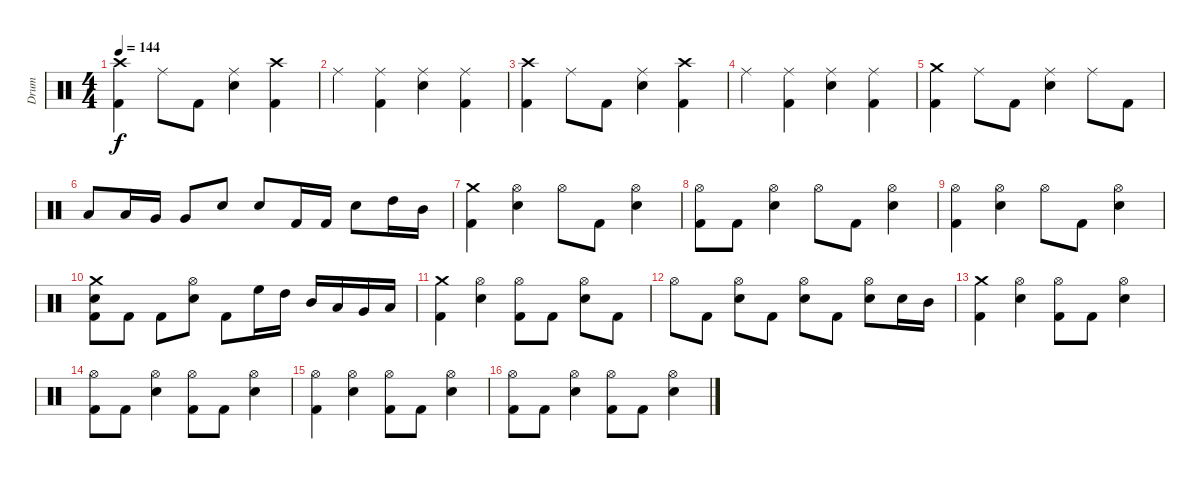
\track ("Drum" "Drum") {instrument percussion}
\staff {score}
\articulation defaults
\ts (4 4)
\tempo 144
\clef neutral
\ks c
("Crash high (hit)" "Kick (hit) 2").4{dy f} "Ride (middle)".8 "Kick (hit) 2".8 ("Ride (middle)" "Electric Snare (hit)").4 ("Crash high (hit)" "Kick (hit) 2").4 |
"Ride (middle)".4 ("Ride (middle)" "Kick (hit) 2").4 ("Ride (middle)" "Electric Snare (hit)").4 ("Ride (middle)" "Kick (hit) 2").4 |
("Crash high (hit)" "Kick (hit) 2").4 "Ride (middle)".8 "Kick (hit) 2".8 ("Ride (middle)" "Electric Snare (hit)").4 ("Crash high (hit)" "Kick (hit) 2").4 |
"Ride (middle)".4 ("Ride (middle)" "Kick (hit) 2").4 ("Ride (middle)" "Electric Snare (hit)").4 ("Ride (middle)" "Kick (hit) 2").4 |
("Crash medium (hit)" "Kick (hit) 2").4 "Ride (middle)".8 "Kick (hit) 2".8 ("Ride (middle)" "Electric Snare (hit)").4 "Ride (middle)".8 "Kick (hit) 2".8 |
"Low Tom (hit)".8 "Low Tom (hit)".16 "Very Low Tom (hit)".16 "Very Low Tom (hit)".8 "Electric Snare (hit)".8 "Electric Snare (hit)".8 "Kick (hit) 2".16 "Kick (hit) 2".16 "Electric Snare (hit)".8 "High Tom (hit)".16 "Mid Tom (hit)".16 |
("Crash medium (hit)" "Kick (hit) 2").4 ("Hi-Hat (open)" "Electric Snare (hit)").4 "Hi-Hat (open)".8 "Kick (hit) 2".8 ("Hi-Hat (open)" "Electric Snare (hit)").4 |
("Hi-Hat (open)" "Kick (hit) 2").8 "Kick (hit) 2".8 ("Hi-Hat (open)" "Electric Snare (hit)").4 "Hi-Hat (open)".8 "Kick (hit) 2".8 ("Hi-Hat (open)" "Electric Snare (hit)").4 |
("Hi-Hat (open)" "Kick (hit) 2").4 ("Hi-Hat (open)" "Electric Snare (hit)").4 "Hi-Hat (open)".8 "Kick (hit) 2".8 ("Hi-Hat (open)" "Electric Snare (hit)").4 |
("Crash medium (hit)" "Electric Snare (hit)" "Kick (hit) 2").8 "Kick (hit) 2".8 "Kick (hit) 2".8 ("Hi-Hat (open)" "Electric Snare (hit)").8 "Kick (hit) 2".8 "High Floor Tom (hit)".16 "High Tom (hit)".16 "Mid Tom (hit)".16 "Low Tom (hit)".16 "Very Low Tom (hit)".16 "Low Floor Tom (hit)".16 |
("Crash medium (hit)" "Kick (hit) 2").4 ("Hi-Hat (open)" "Electric Snare (hit)").4 ("Hi-Hat (open)" "Kick (hit) 2").8 "Kick (hit) 2".8 ("Hi-Hat (open)" "Electric Snare (hit)").8 "Kick (hit) 2".8 |
"Hi-Hat (open)".8 "Kick (hit) 2".8 ("Hi-Hat (open)" "Electric Snare (hit)").8 "Kick (hit) 2".8 ("Hi-Hat (open)" "Electric Snare (hit)").8 "Kick (hit) 2".8 ("Hi-Hat (open)" "Electric Snare (hit)").8 "Electric Snare (hit)".16 "Mid Tom (hit)".16 |
("Crash medium (hit)" "Kick (hit) 2").4 ("Hi-Hat (open)" "Electric Snare (hit)").4 ("Hi-Hat (open)" "Kick (hit) 2").8 "Kick (hit) 2".8 ("Hi-Hat (open)" "Electric Snare (hit)").4 |
("Hi-Hat (open)" "Kick (hit) 2").8 "Kick (hit) 2".8 ("Hi-Hat (open)" "Electric Snare (hit)").4 ("Hi-Hat (open)" "Kick (hit) 2").8 "Kick (hit) 2".8 ("Hi-Hat (open)" "Electric Snare (hit)").4 |
("Hi-Hat (open)" "Kick (hit) 2").4 ("Hi-Hat (open)" "Electric Snare (hit)").4 ("Hi-Hat (open)" "Kick (hit) 2").8 "Kick (hit) 2".8 ("Hi-Hat (open)" "Electric Snare (hit)").4 |
("Hi-Hat (open)" "Kick (hit) 2").8 "Kick (hit) 2".8 ("Hi-Hat (open)" "Electric Snare (hit)").4 ("Hi-Hat (open)" "Kick (hit) 2").8 "Kick (hit) 2".8 ("Hi-Hat (open)" "Electric Snare (hit)").4
